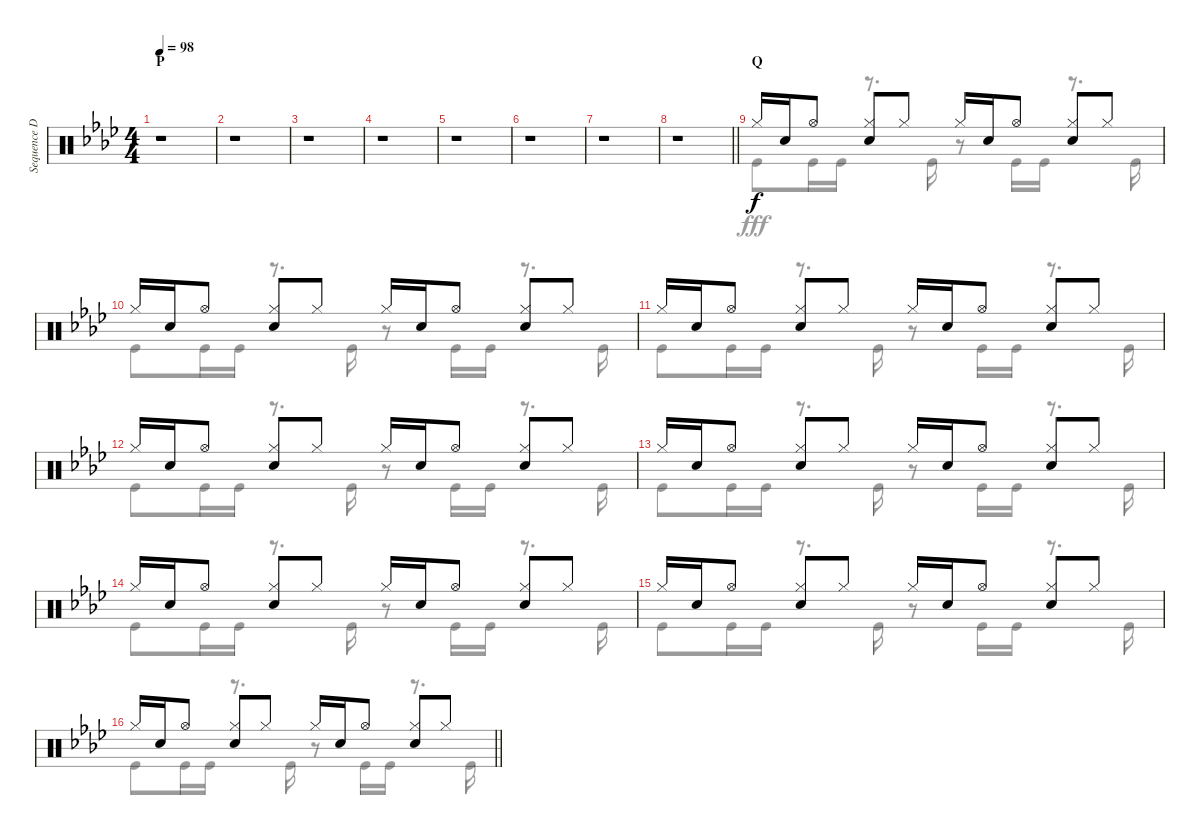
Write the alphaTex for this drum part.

\track ("Sequence Drums II" "Sequence D") {instrument percussion}
\staff {score}
\articulation defaults
\voice
\ts (4 4)
\section ("" "P")
\tempo 98
\clef neutral
\ks ab
r.1{dy f} |
r.1 |
r.1 |
r.1 |
r.1 |
r.1 |
r.1 |
\barLineRight lightlight
r.1 |
\section ("" "Q")
"Hi-Hat (closed)".16 "Snare (hit) 2".16 "Hi-Hat (open)".8 ("Hi-Hat (closed)" "Snare (hit) 2").8 "Hi-Hat (closed)".8 "Hi-Hat (closed)".16 "Snare (hit) 2".16 "Hi-Hat (open)".8 ("Hi-Hat (closed)" "Snare (hit) 2").8 "Hi-Hat (closed)".8 |
"Hi-Hat (closed)".16 "Snare (hit) 2".16 "Hi-Hat (open)".8 ("Hi-Hat (closed)" "Snare (hit) 2").8 "Hi-Hat (closed)".8 "Hi-Hat (closed)".16 "Snare (hit) 2".16 "Hi-Hat (open)".8 ("Hi-Hat (closed)" "Snare (hit) 2").8 "Hi-Hat (closed)".8 |
"Hi-Hat (closed)".16 "Snare (hit) 2".16 "Hi-Hat (open)".8 ("Hi-Hat (closed)" "Snare (hit) 2").8 "Hi-Hat (closed)".8 "Hi-Hat (closed)".16 "Snare (hit) 2".16 "Hi-Hat (open)".8 ("Hi-Hat (closed)" "Snare (hit) 2").8 "Hi-Hat (closed)".8 |
"Hi-Hat (closed)".16 "Snare (hit) 2".16 "Hi-Hat (open)".8 ("Hi-Hat (closed)" "Snare (hit) 2").8 "Hi-Hat (closed)".8 "Hi-Hat (closed)".16 "Snare (hit) 2".16 "Hi-Hat (open)".8 ("Hi-Hat (closed)" "Snare (hit) 2").8 "Hi-Hat (closed)".8 |
"Hi-Hat (closed)".16 "Snare (hit) 2".16 "Hi-Hat (open)".8 ("Hi-Hat (closed)" "Snare (hit) 2").8 "Hi-Hat (closed)".8 "Hi-Hat (closed)".16 "Snare (hit) 2".16 "Hi-Hat (open)".8 ("Hi-Hat (closed)" "Snare (hit) 2").8 "Hi-Hat (closed)".8 |
"Hi-Hat (closed)".16 "Snare (hit) 2".16 "Hi-Hat (open)".8 ("Hi-Hat (closed)" "Snare (hit) 2").8 "Hi-Hat (closed)".8 "Hi-Hat (closed)".16 "Snare (hit) 2".16 "Hi-Hat (open)".8 ("Hi-Hat (closed)" "Snare (hit) 2").8 "Hi-Hat (closed)".8 |
"Hi-Hat (closed)".16 "Snare (hit) 2".16 "Hi-Hat (open)".8 ("Hi-Hat (closed)" "Snare (hit) 2").8 "Hi-Hat (closed)".8 "Hi-Hat (closed)".16 "Snare (hit) 2".16 "Hi-Hat (open)".8 ("Hi-Hat (closed)" "Snare (hit) 2").8 "Hi-Hat (closed)".8 |
\barLineRight lightlight "Hi-Hat (closed)".16 "Snare (hit) 2".16 "Hi-Hat (open)".8
("Hi-Hat (closed)" "Snare (hit) 2").8 "Hi-Hat (closed)".8 "Hi-Hat (closed)".16 "Snare (hit) 2".16 "Hi-Hat (open)".8 ("Hi-Hat (closed)" "Snare (hit) 2").8 "Hi-Hat (closed)".8
\voice
\clef neutral
\ottava regular
\simile none
\ks ab
r.1{dy fff} |
r.1 |
r.1 |
r.1 |
r.1 |
r.1 |
r.1 |
\barLineRight lightlight
r.1 |
"Kick (hit)".8 "Kick (hit)".16 "Kick (hit)".16 r.8{d} "Kick (hit)".16 r.8 "Kick (hit)".16 "Kick (hit)".16 r.8{d} "Kick (hit)".16 |
"Kick (hit)".8 "Kick (hit)".16 "Kick (hit)".16 r.8{d} "Kick (hit)".16 r.8 "Kick (hit)".16 "Kick (hit)".16 r.8{d} "Kick (hit)".16 |
"Kick (hit)".8 "Kick (hit)".16 "Kick (hit)".16 r.8{d} "Kick (hit)".16 r.8 "Kick (hit)".16 "Kick (hit)".16 r.8{d} "Kick (hit)".16 |
"Kick (hit)".8 "Kick (hit)".16 "Kick (hit)".16 r.8{d} "Kick (hit)".16 r.8 "Kick (hit)".16 "Kick (hit)".16 r.8{d} "Kick (hit)".16 |
"Kick (hit)".8 "Kick (hit)".16 "Kick (hit)".16 r.8{d} "Kick (hit)".16 r.8 "Kick (hit)".16 "Kick (hit)".16 r.8{d} "Kick (hit)".16 |
"Kick (hit)".8 "Kick (hit)".16 "Kick (hit)".16 r.8{d} "Kick (hit)".16 r.8 "Kick (hit)".16 "Kick (hit)".16 r.8{d} "Kick (hit)".16 |
"Kick (hit)".8 "Kick (hit)".16 "Kick (hit)".16 r.8{d} "Kick (hit)".16 r.8 "Kick (hit)".16 "Kick (hit)".16 r.8{d} "Kick (hit)".16 |
\barLineRight lightlight "Kick (hit)".8 "Kick (hit)".16 "Kick (hit)".16
r.8{d} "Kick (hit)".16 r.8 "Kick (hit)".16 "Kick (hit)".16 r.8{d} "Kick (hit)".16
